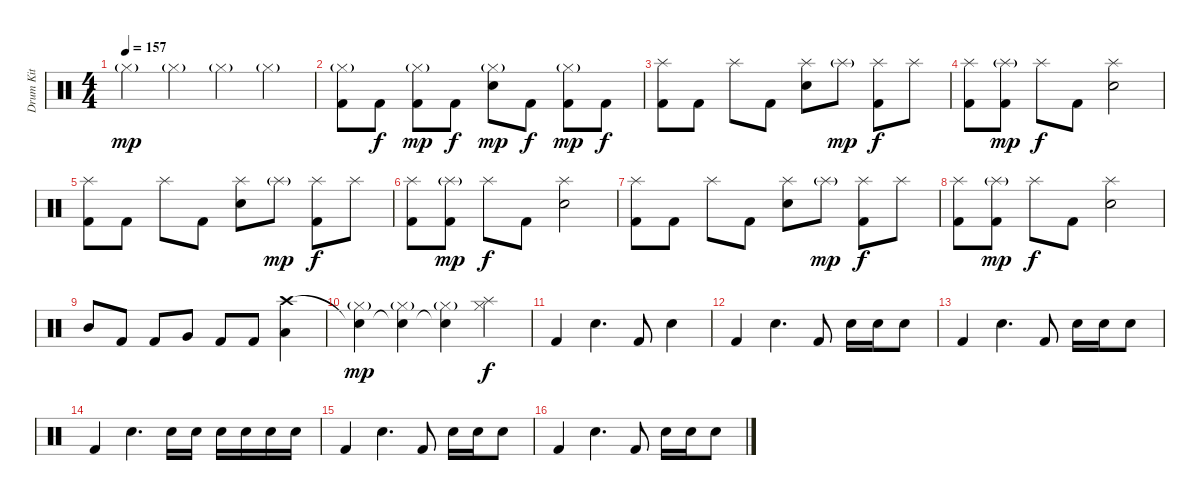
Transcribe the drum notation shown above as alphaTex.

\track ("Drum Kit" "Drum Kit") {instrument percussion}
\staff {score}
\articulation defaults
\ts (4 4)
\tempo 157
\clef neutral
\ks c "Hi-Hat (closed)"{g}.4{dy mp} "Hi-Hat (closed)"{g}.4 "Hi-Hat (closed)"{g}.4 "Hi-Hat (closed)"{g}.4
|
("Hi-Hat (closed)"{g} "Kick (hit) 2").8 "Kick (hit) 2".8{dy f} ("Hi-Hat (closed)"{g} "Kick (hit) 2").8{dy mp} "Kick (hit) 2".8{dy f} ("Hi-Hat (closed)"{g} "Snare (hit) 2").8{dy mp} "Kick (hit) 2".8{dy f} ("Hi-Hat (closed)"{g} "Kick (hit) 2").8{dy mp} "Kick (hit) 2".8{dy f} |
("Splash (hit)" "Kick (hit) 2").8 "Kick (hit) 2".8 "Splash (hit)".8 "Kick (hit) 2".8 ("Splash (hit)" "Snare (hit) 2").8 "Splash (hit)"{g}.8{dy mp} ("Splash (hit)" "Kick (hit) 2").8{dy f} "Splash (hit)".8 |
("Splash (hit)" "Kick (hit) 2").8 ("Splash (hit)"{g} "Kick (hit) 2").8{dy mp} "Splash (hit)".8{dy f} "Kick (hit) 2".8 ("Splash (hit)" "Snare (hit) 2").2 |
("Splash (hit)" "Kick (hit) 2").8 "Kick (hit) 2".8 "Splash (hit)".8 "Kick (hit) 2".8 ("Splash (hit)" "Snare (hit) 2").8 "Splash (hit)"{g}.8{dy mp} ("Splash (hit)" "Kick (hit) 2").8{dy f} "Splash (hit)".8 |
("Splash (hit)" "Kick (hit) 2").8 ("Splash (hit)"{g} "Kick (hit) 2").8{dy mp} "Splash (hit)".8{dy f} "Kick (hit) 2".8 ("Splash (hit)" "Snare (hit) 2").2 |
("Splash (hit)" "Kick (hit) 2").8 "Kick (hit) 2".8 "Splash (hit)".8 "Kick (hit) 2".8 ("Splash (hit)" "Snare (hit) 2").8 "Splash (hit)"{g}.8{dy mp} ("Splash (hit)" "Kick (hit) 2").8{dy f} "Splash (hit)".8 |
("Splash (hit)" "Kick (hit) 2").8 ("Splash (hit)"{g} "Kick (hit) 2").8{dy mp} "Splash (hit)".8{dy f} "Kick (hit) 2".8 ("Splash (hit)" "Snare (hit) 2").2 |
"Mid Tom (hit)".8 "Kick (hit) 2".8 "Kick (hit) 2".8 "Very Low Tom (hit)".8 "Kick (hit) 2".8 "Kick (hit) 2".8 ("Crash high (hit)" "Low Floor Tom (hit)").4 |
("Snare (hit)"{t} "Hi-Hat (closed)"{g}).4{dy mp} ("Snare (hit)"{t} "Hi-Hat (closed)"{g}).4 ("Snare (hit)"{t} "Hi-Hat (closed)"{g}).4 ("Splash (hit)" "Hi-Hat (closed)").4{dy f} |
"Kick (hit) 2".4 "Snare (hit) 2".4{d} "Kick (hit) 2".8 "Snare (hit) 2".4 |
"Kick (hit) 2".4 "Snare (hit) 2".4{d} "Kick (hit) 2".8 "Snare (hit) 2".16 "Snare (hit) 2".16 "Snare (hit) 2".8 |
"Kick (hit) 2".4 "Snare (hit) 2".4{d} "Kick (hit) 2".8 "Snare (hit) 2".16 "Snare (hit) 2".16 "Snare (hit) 2".8 |
"Kick (hit) 2".4 "Snare (hit) 2".4{d} "Snare (hit) 2".16 "Snare (hit) 2".16 "Snare (hit) 2".16 "Snare (hit) 2".16 "Snare (hit) 2".16 "Snare (hit) 2".16 |
"Kick (hit) 2".4 "Snare (hit) 2".4{d} "Kick (hit) 2".8 "Snare (hit) 2".16 "Snare (hit) 2".16 "Snare (hit) 2".8 |
"Kick (hit) 2".4 "Snare (hit) 2".4{d} "Kick (hit) 2".8 "Snare (hit) 2".16 "Snare (hit) 2".16 "Snare (hit) 2".8
